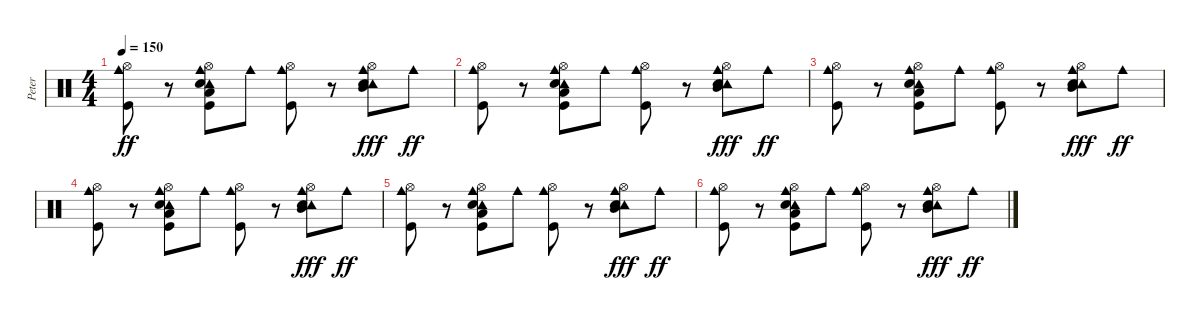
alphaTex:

\track ("Peter" "Peter") {instrument percussion}
\staff {score}
\articulation defaults
\ts (4 4)
\tempo 150
\clef neutral
\ks c
("Cowbell medium (hit)" "Hi-Hat (open)" "Kick (hit)").8{dy ff} r.8 ("Cowbell medium (hit)" "Tambourine (hit)" "Hi-Hat (open)" "Hand Clap (hit)" "Low Floor Tom (hit)" "Kick (hit)").8 "Cowbell medium (hit)".8 ("Cowbell medium (hit)" "Hi-Hat (open)" "Kick (hit)").8 r.8 ("Cowbell medium (hit)" "Tambourine (hit)" "Hi-Hat (open)" "Mid Tom (hit)" "Hand Clap (hit)").8{dy fff} "Cowbell medium (hit)".8{dy ff} |
("Cowbell medium (hit)" "Hi-Hat (open)" "Kick (hit)").8 r.8 ("Cowbell medium (hit)" "Tambourine (hit)" "Hi-Hat (open)" "Hand Clap (hit)" "Low Floor Tom (hit)" "Kick (hit)").8 "Cowbell medium (hit)".8 ("Cowbell medium (hit)" "Hi-Hat (open)" "Kick (hit)").8 r.8 ("Cowbell medium (hit)" "Tambourine (hit)" "Hi-Hat (open)" "Mid Tom (hit)" "Hand Clap (hit)").8{dy fff} "Cowbell medium (hit)".8{dy ff} |
("Cowbell medium (hit)" "Hi-Hat (open)" "Kick (hit)").8 r.8 ("Cowbell medium (hit)" "Tambourine (hit)" "Hi-Hat (open)" "Hand Clap (hit)" "Low Floor Tom (hit)" "Kick (hit)").8 "Cowbell medium (hit)".8 ("Cowbell medium (hit)" "Hi-Hat (open)" "Kick (hit)").8 r.8 ("Cowbell medium (hit)" "Tambourine (hit)" "Hi-Hat (open)" "Mid Tom (hit)" "Hand Clap (hit)").8{dy fff} "Cowbell medium (hit)".8{dy ff} |
("Cowbell medium (hit)" "Hi-Hat (open)" "Kick (hit)").8 r.8 ("Cowbell medium (hit)" "Tambourine (hit)" "Hi-Hat (open)" "Hand Clap (hit)" "Low Floor Tom (hit)" "Kick (hit)").8 "Cowbell medium (hit)".8 ("Cowbell medium (hit)" "Hi-Hat (open)" "Kick (hit)").8 r.8 ("Cowbell medium (hit)" "Tambourine (hit)" "Hi-Hat (open)" "Mid Tom (hit)" "Hand Clap (hit)").8{dy fff} "Cowbell medium (hit)".8{dy ff} |
("Cowbell medium (hit)" "Hi-Hat (open)" "Kick (hit)").8 r.8 ("Cowbell medium (hit)" "Tambourine (hit)" "Hi-Hat (open)" "Hand Clap (hit)" "Low Floor Tom (hit)" "Kick (hit)").8 "Cowbell medium (hit)".8 ("Cowbell medium (hit)" "Hi-Hat (open)" "Kick (hit)").8 r.8 ("Cowbell medium (hit)" "Tambourine (hit)" "Hi-Hat (open)" "Mid Tom (hit)" "Hand Clap (hit)").8{dy fff} "Cowbell medium (hit)".8{dy ff} |
("Cowbell medium (hit)" "Hi-Hat (open)" "Kick (hit)").8 r.8 ("Cowbell medium (hit)" "Tambourine (hit)" "Hi-Hat (open)" "Hand Clap (hit)" "Low Floor Tom (hit)" "Kick (hit)").8 "Cowbell medium (hit)".8 ("Cowbell medium (hit)" "Hi-Hat (open)" "Kick (hit)").8 r.8 ("Cowbell medium (hit)" "Tambourine (hit)" "Hi-Hat (open)" "Mid Tom (hit)" "Hand Clap (hit)").8{dy fff} "Cowbell medium (hit)".8{dy ff}
